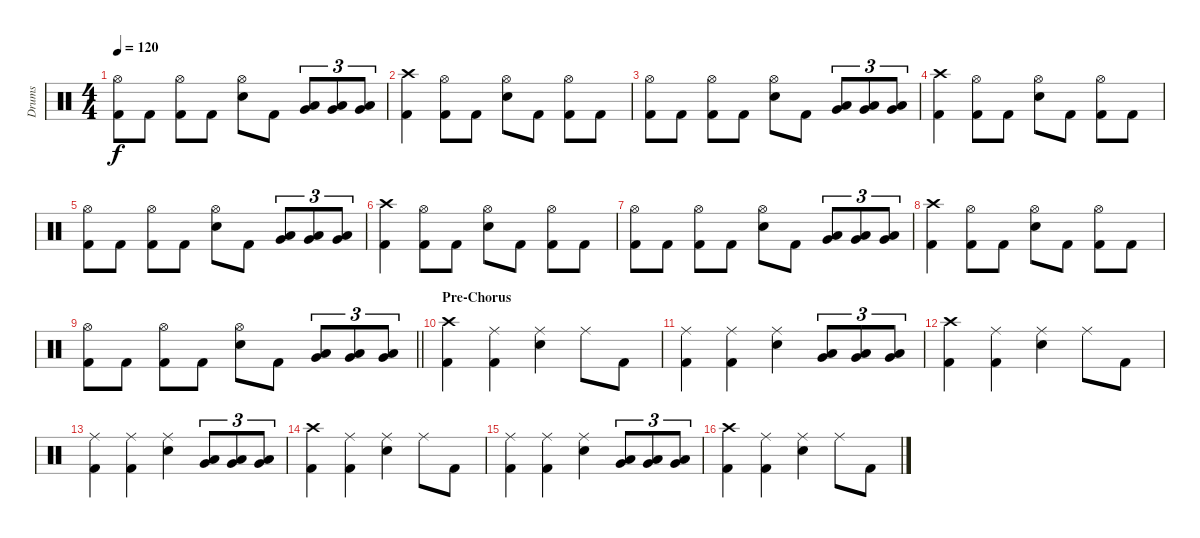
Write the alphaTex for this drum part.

\track ("Drums" "Drums") {instrument percussion}
\staff {score}
\articulation defaults
\ts (4 4)
\tempo 120
\clef neutral
\ks c
("Hi-Hat (open)" "Kick (hit) 2").8{dy f} "Kick (hit) 2".8 ("Hi-Hat (open)" "Kick (hit) 2").8 "Kick (hit) 2".8 ("Hi-Hat (open)" "Electric Snare (hit)").8 "Kick (hit) 2".8 ("Low Tom (hit)" "Very Low Tom (hit)").8{tu (3 2)} ("Low Tom (hit)" "Very Low Tom (hit)").8{tu (3 2)} ("Low Tom (hit)" "Very Low Tom (hit)").8{tu (3 2)} |
("Crash high (hit)" "Kick (hit) 2").4 ("Hi-Hat (open)" "Kick (hit) 2").8 "Kick (hit) 2".8 ("Hi-Hat (open)" "Electric Snare (hit)").8 "Kick (hit) 2".8 ("Hi-Hat (open)" "Kick (hit) 2").8 "Kick (hit) 2".8 |
("Hi-Hat (open)" "Kick (hit) 2").8 "Kick (hit) 2".8 ("Hi-Hat (open)" "Kick (hit) 2").8 "Kick (hit) 2".8 ("Hi-Hat (open)" "Electric Snare (hit)").8 "Kick (hit) 2".8 ("Low Tom (hit)" "Very Low Tom (hit)").8{tu (3 2)} ("Low Tom (hit)" "Very Low Tom (hit)").8{tu (3 2)} ("Low Tom (hit)" "Very Low Tom (hit)").8{tu (3 2)} |
("Crash high (hit)" "Kick (hit) 2").4 ("Hi-Hat (open)" "Kick (hit) 2").8 "Kick (hit) 2".8 ("Hi-Hat (open)" "Electric Snare (hit)").8 "Kick (hit) 2".8 ("Hi-Hat (open)" "Kick (hit) 2").8 "Kick (hit) 2".8 |
("Hi-Hat (open)" "Kick (hit) 2").8 "Kick (hit) 2".8 ("Hi-Hat (open)" "Kick (hit) 2").8 "Kick (hit) 2".8 ("Hi-Hat (open)" "Electric Snare (hit)").8 "Kick (hit) 2".8 ("Low Tom (hit)" "Very Low Tom (hit)").8{tu (3 2)} ("Low Tom (hit)" "Very Low Tom (hit)").8{tu (3 2)} ("Low Tom (hit)" "Very Low Tom (hit)").8{tu (3 2)} |
("Crash high (hit)" "Kick (hit) 2").4 ("Hi-Hat (open)" "Kick (hit) 2").8 "Kick (hit) 2".8 ("Hi-Hat (open)" "Electric Snare (hit)").8 "Kick (hit) 2".8 ("Hi-Hat (open)" "Kick (hit) 2").8 "Kick (hit) 2".8 |
("Hi-Hat (open)" "Kick (hit) 2").8 "Kick (hit) 2".8 ("Hi-Hat (open)" "Kick (hit) 2").8 "Kick (hit) 2".8 ("Hi-Hat (open)" "Electric Snare (hit)").8 "Kick (hit) 2".8 ("Low Tom (hit)" "Very Low Tom (hit)").8{tu (3 2)} ("Low Tom (hit)" "Very Low Tom (hit)").8{tu (3 2)} ("Low Tom (hit)" "Very Low Tom (hit)").8{tu (3 2)} |
("Crash high (hit)" "Kick (hit) 2").4 ("Hi-Hat (open)" "Kick (hit) 2").8 "Kick (hit) 2".8 ("Hi-Hat (open)" "Electric Snare (hit)").8 "Kick (hit) 2".8 ("Hi-Hat (open)" "Kick (hit) 2").8 "Kick (hit) 2".8 |
\barLineRight lightlight
("Hi-Hat (open)" "Kick (hit) 2").8 "Kick (hit) 2".8 ("Hi-Hat (open)" "Kick (hit) 2").8 "Kick (hit) 2".8 ("Hi-Hat (open)" "Electric Snare (hit)").8 "Kick (hit) 2".8 ("Low Tom (hit)" "Very Low Tom (hit)").8{tu (3 2)} ("Low Tom (hit)" "Very Low Tom (hit)").8{tu (3 2)} ("Low Tom (hit)" "Very Low Tom (hit)").8{tu (3 2)} |
\section ("" "Pre-Chorus")
("Crash high (hit)" "Kick (hit) 2").4 ("Ride (middle)" "Kick (hit) 2").4 ("Ride (middle)" "Electric Snare (hit)").4 "Ride (middle)".8 "Kick (hit) 2".8 |
("Ride (middle)" "Kick (hit) 2").4 ("Ride (middle)" "Kick (hit) 2").4 ("Ride (middle)" "Electric Snare (hit)").4 ("Low Tom (hit)" "Very Low Tom (hit)").8{tu (3 2)} ("Low Tom (hit)" "Very Low Tom (hit)").8{tu (3 2)} ("Low Tom (hit)" "Very Low Tom (hit)").8{tu (3 2)} |
("Crash high (hit)" "Kick (hit) 2").4 ("Ride (middle)" "Kick (hit) 2").4 ("Ride (middle)" "Electric Snare (hit)").4 "Ride (middle)".8 "Kick (hit) 2".8 |
("Ride (middle)" "Kick (hit) 2").4 ("Ride (middle)" "Kick (hit) 2").4 ("Ride (middle)" "Electric Snare (hit)").4 ("Low Tom (hit)" "Very Low Tom (hit)").8{tu (3 2)} ("Low Tom (hit)" "Very Low Tom (hit)").8{tu (3 2)} ("Low Tom (hit)" "Very Low Tom (hit)").8{tu (3 2)} |
("Crash high (hit)" "Kick (hit) 2").4 ("Ride (middle)" "Kick (hit) 2").4 ("Ride (middle)" "Electric Snare (hit)").4 "Ride (middle)".8 "Kick (hit) 2".8 |
("Ride (middle)" "Kick (hit) 2").4 ("Ride (middle)" "Kick (hit) 2").4 ("Ride (middle)" "Electric Snare (hit)").4 ("Low Tom (hit)" "Very Low Tom (hit)").8{tu (3 2)} ("Low Tom (hit)" "Very Low Tom (hit)").8{tu (3 2)} ("Low Tom (hit)" "Very Low Tom (hit)").8{tu (3 2)} |
("Crash high (hit)" "Kick (hit) 2").4 ("Ride (middle)" "Kick (hit) 2").4 ("Ride (middle)" "Electric Snare (hit)").4 "Ride (middle)".8 "Kick (hit) 2".8
